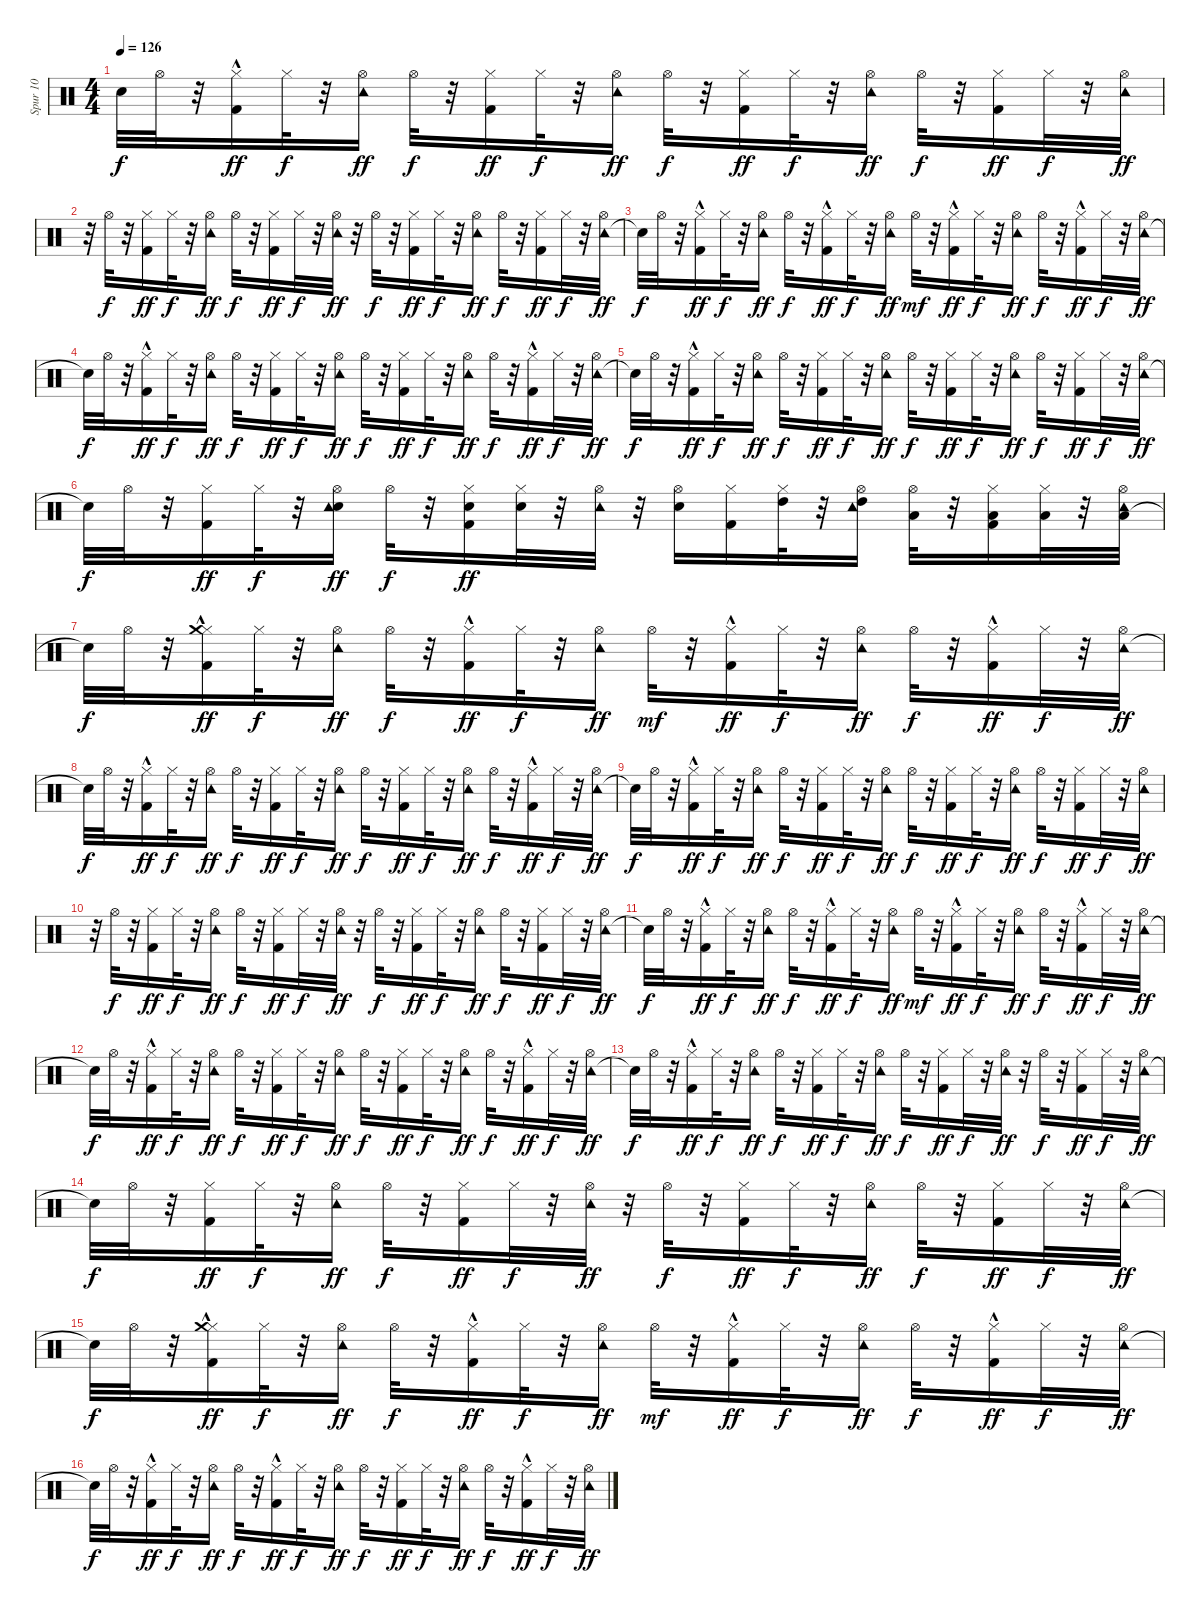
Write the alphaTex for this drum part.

\track ("Spur 10" "Spur 10") {instrument percussion}
\staff {score}
\articulation defaults
\ts (4 4)
\tempo 126
\clef neutral
\ks c "Snare (hit)"{t}.32{dy f} "Hi-Hat (open)".32
r.32 ("Kick (hit) 2"{hac} "Hi-Hat (closed)").16{dy ff} "Hi-Hat (closed)".32{dy f} r.32 ("Tambourine (hit)" "Hi-Hat (open)").16{dy ff} "Hi-Hat (open)".32{dy f} r.32 ("Kick (hit) 2" "Hi-Hat (closed)").16{dy ff} "Hi-Hat (closed)".32{dy f} r.32 ("Tambourine (hit)" "Hi-Hat (open)").16{dy ff} "Hi-Hat (open)".32{dy f} r.32 ("Kick (hit) 2" "Hi-Hat (closed)").16{dy ff} "Hi-Hat (closed)".32{dy f} r.32 ("Tambourine (hit)" "Hi-Hat (open)").16{dy ff} "Hi-Hat (open)".32{dy f} r.32 ("Kick (hit) 2" "Hi-Hat (closed)").16{dy ff} "Hi-Hat (closed)".32{dy f} r.32 ("Tambourine (hit)" "Hi-Hat (open)").32{dy ff} |
r.32 "Hi-Hat (open)".32{dy f} r.32 ("Kick (hit) 2" "Hi-Hat (closed)").16{dy ff} "Hi-Hat (closed)".32{dy f} r.32 ("Tambourine (hit)" "Hi-Hat (open)").16{dy ff} "Hi-Hat (open)".32{dy f} r.32 ("Kick (hit) 2" "Hi-Hat (closed)").16{dy ff} "Hi-Hat (closed)".32{dy f} r.32 ("Tambourine (hit)" "Hi-Hat (open)").32{dy ff} r.32 "Hi-Hat (open)".32{dy f} r.32 ("Kick (hit) 2" "Hi-Hat (closed)").16{dy ff} "Hi-Hat (closed)".32{dy f} r.32 ("Tambourine (hit)" "Hi-Hat (open)").16{dy ff} "Hi-Hat (open)".32{dy f} r.32 ("Kick (hit) 2" "Hi-Hat (closed)").16{dy ff} "Hi-Hat (closed)".32{dy f} r.32 ("Tambourine (hit)" "Hi-Hat (open)").32{dy ff} |
"Snare (hit)"{t}.32{dy f} "Hi-Hat (open)".32 r.32 ("Kick (hit) 2"{hac} "Hi-Hat (closed)").16{dy ff} "Hi-Hat (closed)".32{dy f} r.32 ("Tambourine (hit)" "Hi-Hat (open)").16{dy ff} "Hi-Hat (open)".32{dy f} r.32 ("Kick (hit) 2"{hac} "Hi-Hat (closed)").16{dy ff} "Hi-Hat (closed)".32{dy f} r.32 ("Tambourine (hit)" "Hi-Hat (open)").16{dy ff} "Hi-Hat (open)".32{dy mf} r.32 ("Kick (hit) 2"{hac} "Hi-Hat (closed)").16{dy ff} "Hi-Hat (closed)".32{dy f} r.32 ("Tambourine (hit)" "Hi-Hat (open)").16{dy ff} "Hi-Hat (open)".32{dy f} r.32 ("Kick (hit) 2"{hac} "Hi-Hat (closed)").16{dy ff} "Hi-Hat (closed)".32{dy f} r.32 ("Tambourine (hit)" "Hi-Hat (open)").32{dy ff} |
"Snare (hit)"{t}.32{dy f} "Hi-Hat (open)".32 r.32 ("Kick (hit) 2"{hac} "Hi-Hat (closed)").16{dy ff} "Hi-Hat (closed)".32{dy f} r.32 ("Tambourine (hit)" "Hi-Hat (open)").16{dy ff} "Hi-Hat (open)".32{dy f} r.32 ("Kick (hit) 2" "Hi-Hat (closed)").16{dy ff} "Hi-Hat (closed)".32{dy f} r.32 ("Tambourine (hit)" "Hi-Hat (open)").16{dy ff} "Hi-Hat (open)".32{dy f} r.32 ("Kick (hit) 2" "Hi-Hat (closed)").16{dy ff} "Hi-Hat (closed)".32{dy f} r.32 ("Tambourine (hit)" "Hi-Hat (open)").16{dy ff} "Hi-Hat (open)".32{dy f} r.32 ("Kick (hit) 2"{hac} "Hi-Hat (closed)").16{dy ff} "Hi-Hat (closed)".32{dy f} r.32 ("Tambourine (hit)" "Hi-Hat (open)").32{dy ff} |
"Snare (hit)"{t}.32{dy f} "Hi-Hat (open)".32 r.32 ("Kick (hit) 2"{hac} "Hi-Hat (closed)").16{dy ff} "Hi-Hat (closed)".32{dy f} r.32 ("Tambourine (hit)" "Hi-Hat (open)").16{dy ff} "Hi-Hat (open)".32{dy f} r.32 ("Kick (hit) 2" "Hi-Hat (closed)").16{dy ff} "Hi-Hat (closed)".32{dy f} r.32 ("Tambourine (hit)" "Hi-Hat (open)").16{dy ff} "Hi-Hat (open)".32{dy f} r.32 ("Kick (hit) 2" "Hi-Hat (closed)").16{dy ff} "Hi-Hat (closed)".32{dy f} r.32 ("Tambourine (hit)" "Hi-Hat (open)").16{dy ff} "Hi-Hat (open)".32{dy f} r.32 ("Kick (hit) 2" "Hi-Hat (closed)").16{dy ff} "Hi-Hat (closed)".32{dy f} r.32 ("Tambourine (hit)" "Hi-Hat (open)").32{dy ff} |
"Snare (hit)"{t}.32{dy f} "Hi-Hat (open)".32 r.32 ("Kick (hit) 2" "Hi-Hat (closed)").16{dy ff} "Hi-Hat (closed)".32{dy f} r.32 ("Electric Snare (hit)" "Tambourine (hit)" "Hi-Hat (open)").16{dy ff} "Hi-Hat (open)".32{dy f} r.32 ("Electric Snare (hit)" "Kick (hit) 2" "Hi-Hat (closed)").16{dy ff} ("Electric Snare (hit)" "Hi-Hat (closed)").32 r.32 ("Tambourine (hit)" "Hi-Hat (open)").32 r.32 ("Electric Snare (hit)" "Hi-Hat (open)").16 ("Kick (hit) 2" "Hi-Hat (closed)").16 ("High Tom (hit)" "Hi-Hat (closed)").32 r.32 ("High Tom (hit)" "Tambourine (hit)" "Hi-Hat (open)").16 ("Low Tom (hit)" "Hi-Hat (open)").32 r.32 ("Low Tom (hit)" "Kick (hit) 2" "Hi-Hat (closed)").16 ("Low Floor Tom (hit)" "Hi-Hat (closed)").32 r.32 ("Low Floor Tom (hit)" "Tambourine (hit)" "Hi-Hat (open)").32 |
"Snare (hit)"{t}.32{dy f} "Hi-Hat (open)".32 r.32 ("Kick (hit) 2"{hac} "Hi-Hat (closed)" "Crash medium (hit)").16{dy ff} "Hi-Hat (closed)".32{dy f} r.32 ("Tambourine (hit)" "Hi-Hat (open)").16{dy ff} "Hi-Hat (open)".32{dy f} r.32 ("Kick (hit) 2"{hac} "Hi-Hat (closed)").16{dy ff} "Hi-Hat (closed)".32{dy f} r.32 ("Tambourine (hit)" "Hi-Hat (open)").16{dy ff} "Hi-Hat (open)".32{dy mf} r.32 ("Kick (hit) 2"{hac} "Hi-Hat (closed)").16{dy ff} "Hi-Hat (closed)".32{dy f} r.32 ("Tambourine (hit)" "Hi-Hat (open)").16{dy ff} "Hi-Hat (open)".32{dy f} r.32 ("Kick (hit) 2"{hac} "Hi-Hat (closed)").16{dy ff} "Hi-Hat (closed)".32{dy f} r.32 ("Tambourine (hit)" "Hi-Hat (open)").32{dy ff} |
"Snare (hit)"{t}.32{dy f} "Hi-Hat (open)".32 r.32 ("Kick (hit) 2"{hac} "Hi-Hat (closed)").16{dy ff} "Hi-Hat (closed)".32{dy f} r.32 ("Tambourine (hit)" "Hi-Hat (open)").16{dy ff} "Hi-Hat (open)".32{dy f} r.32 ("Kick (hit) 2" "Hi-Hat (closed)").16{dy ff} "Hi-Hat (closed)".32{dy f} r.32 ("Tambourine (hit)" "Hi-Hat (open)").16{dy ff} "Hi-Hat (open)".32{dy f} r.32 ("Kick (hit) 2" "Hi-Hat (closed)").16{dy ff} "Hi-Hat (closed)".32{dy f} r.32 ("Tambourine (hit)" "Hi-Hat (open)").16{dy ff} "Hi-Hat (open)".32{dy f} r.32 ("Kick (hit) 2"{hac} "Hi-Hat (closed)").16{dy ff} "Hi-Hat (closed)".32{dy f} r.32 ("Tambourine (hit)" "Hi-Hat (open)").32{dy ff} |
"Snare (hit)"{t}.32{dy f} "Hi-Hat (open)".32 r.32 ("Kick (hit) 2"{hac} "Hi-Hat (closed)").16{dy ff} "Hi-Hat (closed)".32{dy f} r.32 ("Tambourine (hit)" "Hi-Hat (open)").16{dy ff} "Hi-Hat (open)".32{dy f} r.32 ("Kick (hit) 2" "Hi-Hat (closed)").16{dy ff} "Hi-Hat (closed)".32{dy f} r.32 ("Tambourine (hit)" "Hi-Hat (open)").16{dy ff} "Hi-Hat (open)".32{dy f} r.32 ("Kick (hit) 2" "Hi-Hat (closed)").16{dy ff} "Hi-Hat (closed)".32{dy f} r.32 ("Tambourine (hit)" "Hi-Hat (open)").16{dy ff} "Hi-Hat (open)".32{dy f} r.32 ("Kick (hit) 2" "Hi-Hat (closed)").16{dy ff} "Hi-Hat (closed)".32{dy f} r.32 ("Tambourine (hit)" "Hi-Hat (open)").32{dy ff} |
r.32 "Hi-Hat (open)".32{dy f} r.32 ("Kick (hit) 2" "Hi-Hat (closed)").16{dy ff} "Hi-Hat (closed)".32{dy f} r.32 ("Tambourine (hit)" "Hi-Hat (open)").16{dy ff} "Hi-Hat (open)".32{dy f} r.32 ("Kick (hit) 2" "Hi-Hat (closed)").16{dy ff} "Hi-Hat (closed)".32{dy f} r.32 ("Tambourine (hit)" "Hi-Hat (open)").32{dy ff} r.32 "Hi-Hat (open)".32{dy f} r.32 ("Kick (hit) 2" "Hi-Hat (closed)").16{dy ff} "Hi-Hat (closed)".32{dy f} r.32 ("Tambourine (hit)" "Hi-Hat (open)").16{dy ff} "Hi-Hat (open)".32{dy f} r.32 ("Kick (hit) 2" "Hi-Hat (closed)").16{dy ff} "Hi-Hat (closed)".32{dy f} r.32 ("Tambourine (hit)" "Hi-Hat (open)").32{dy ff} |
"Snare (hit)"{t}.32{dy f} "Hi-Hat (open)".32 r.32 ("Kick (hit) 2"{hac} "Hi-Hat (closed)").16{dy ff} "Hi-Hat (closed)".32{dy f} r.32 ("Tambourine (hit)" "Hi-Hat (open)").16{dy ff} "Hi-Hat (open)".32{dy f} r.32 ("Kick (hit) 2"{hac} "Hi-Hat (closed)").16{dy ff} "Hi-Hat (closed)".32{dy f} r.32 ("Tambourine (hit)" "Hi-Hat (open)").16{dy ff} "Hi-Hat (open)".32{dy mf} r.32 ("Kick (hit) 2"{hac} "Hi-Hat (closed)").16{dy ff} "Hi-Hat (closed)".32{dy f} r.32 ("Tambourine (hit)" "Hi-Hat (open)").16{dy ff} "Hi-Hat (open)".32{dy f} r.32 ("Kick (hit) 2"{hac} "Hi-Hat (closed)").16{dy ff} "Hi-Hat (closed)".32{dy f} r.32 ("Tambourine (hit)" "Hi-Hat (open)").32{dy ff} |
"Snare (hit)"{t}.32{dy f} "Hi-Hat (open)".32 r.32 ("Kick (hit) 2"{hac} "Hi-Hat (closed)").16{dy ff} "Hi-Hat (closed)".32{dy f} r.32 ("Tambourine (hit)" "Hi-Hat (open)").16{dy ff} "Hi-Hat (open)".32{dy f} r.32 ("Kick (hit) 2" "Hi-Hat (closed)").16{dy ff} "Hi-Hat (closed)".32{dy f} r.32 ("Tambourine (hit)" "Hi-Hat (open)").16{dy ff} "Hi-Hat (open)".32{dy f} r.32 ("Kick (hit) 2" "Hi-Hat (closed)").16{dy ff} "Hi-Hat (closed)".32{dy f} r.32 ("Tambourine (hit)" "Hi-Hat (open)").16{dy ff} "Hi-Hat (open)".32{dy f} r.32 ("Kick (hit) 2"{hac} "Hi-Hat (closed)").16{dy ff} "Hi-Hat (closed)".32{dy f} r.32 ("Tambourine (hit)" "Hi-Hat (open)").32{dy ff} |
"Snare (hit)"{t}.32{dy f} "Hi-Hat (open)".32 r.32 ("Kick (hit) 2"{hac} "Hi-Hat (closed)").16{dy ff} "Hi-Hat (closed)".32{dy f} r.32 ("Tambourine (hit)" "Hi-Hat (open)").16{dy ff} "Hi-Hat (open)".32{dy f} r.32 ("Kick (hit) 2" "Hi-Hat (closed)").16{dy ff} "Hi-Hat (closed)".32{dy f} r.32 ("Tambourine (hit)" "Hi-Hat (open)").16{dy ff} "Hi-Hat (open)".32{dy f} r.32 ("Kick (hit) 2" "Hi-Hat (closed)").16{dy ff} "Hi-Hat (closed)".32{dy f} r.32 ("Tambourine (hit)" "Hi-Hat (open)").32{dy ff} r.32 "Hi-Hat (open)".32{dy f} r.32 ("Kick (hit) 2" "Hi-Hat (closed)").16{dy ff} "Hi-Hat (closed)".32{dy f} r.32 ("Tambourine (hit)" "Hi-Hat (open)").32{dy ff} |
"Snare (hit)"{t}.32{dy f} "Hi-Hat (open)".32 r.32 ("Kick (hit) 2" "Hi-Hat (closed)").16{dy ff} "Hi-Hat (closed)".32{dy f} r.32 ("Tambourine (hit)" "Hi-Hat (open)").16{dy ff} "Hi-Hat (open)".32{dy f} r.32 ("Kick (hit) 2" "Hi-Hat (closed)").16{dy ff} "Hi-Hat (closed)".32{dy f} r.32 ("Tambourine (hit)" "Hi-Hat (open)").32{dy ff} r.32 "Hi-Hat (open)".32{dy f} r.32 ("Kick (hit) 2" "Hi-Hat (closed)").16{dy ff} "Hi-Hat (closed)".32{dy f} r.32 ("Tambourine (hit)" "Hi-Hat (open)").16{dy ff} "Hi-Hat (open)".32{dy f} r.32 ("Kick (hit) 2" "Hi-Hat (closed)").16{dy ff} "Hi-Hat (closed)".32{dy f} r.32 ("Tambourine (hit)" "Hi-Hat (open)").32{dy ff} |
"Snare (hit)"{t}.32{dy f} "Hi-Hat (open)".32 r.32 ("Kick (hit) 2"{hac} "Hi-Hat (closed)" "Crash medium (hit)").16{dy ff} "Hi-Hat (closed)".32{dy f} r.32 ("Tambourine (hit)" "Hi-Hat (open)").16{dy ff} "Hi-Hat (open)".32{dy f} r.32 ("Kick (hit) 2"{hac} "Hi-Hat (closed)").16{dy ff} "Hi-Hat (closed)".32{dy f} r.32 ("Tambourine (hit)" "Hi-Hat (open)").16{dy ff} "Hi-Hat (open)".32{dy mf} r.32 ("Kick (hit) 2"{hac} "Hi-Hat (closed)").16{dy ff} "Hi-Hat (closed)".32{dy f} r.32 ("Tambourine (hit)" "Hi-Hat (open)").16{dy ff} "Hi-Hat (open)".32{dy f} r.32 ("Kick (hit) 2"{hac} "Hi-Hat (closed)").16{dy ff} "Hi-Hat (closed)".32{dy f} r.32 ("Tambourine (hit)" "Hi-Hat (open)").32{dy ff} |
"Snare (hit)"{t}.32{dy f} "Hi-Hat (open)".32 r.32 ("Kick (hit) 2"{hac} "Hi-Hat (closed)").16{dy ff} "Hi-Hat (closed)".32{dy f} r.32 ("Tambourine (hit)" "Hi-Hat (open)").16{dy ff} "Hi-Hat (open)".32{dy f} r.32 ("Kick (hit) 2"{hac} "Hi-Hat (closed)").16{dy ff} "Hi-Hat (closed)".32{dy f} r.32 ("Tambourine (hit)" "Hi-Hat (open)").16{dy ff} "Hi-Hat (open)".32{dy f} r.32 ("Kick (hit) 2" "Hi-Hat (closed)").16{dy ff} "Hi-Hat (closed)".32{dy f} r.32 ("Tambourine (hit)" "Hi-Hat (open)").16{dy ff} "Hi-Hat (open)".32{dy f} r.32 ("Kick (hit) 2"{hac} "Hi-Hat (closed)").16{dy ff} "Hi-Hat (closed)".32{dy f} r.32 ("Tambourine (hit)" "Hi-Hat (open)").32{dy ff}
